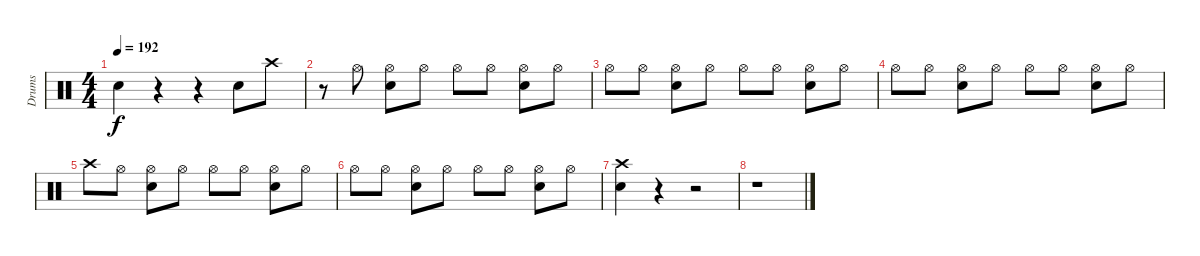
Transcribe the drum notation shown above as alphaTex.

\track ("Drums" "Drums") {instrument percussion}
\staff {score}
\articulation defaults
\ts (4 4)
\tempo 192
\clef neutral
\ks c "Snare (hit) 2".4{dy f}
r.4 r.4 "Snare (hit) 2".8 "Crash high (hit)".8 |
r.8 "Hi-Hat (open)".8 ("Hi-Hat (open)" "Snare (hit) 2").8 "Hi-Hat (open)".8 "Hi-Hat (open)".8 "Hi-Hat (open)".8 ("Hi-Hat (open)" "Snare (hit) 2").8 "Hi-Hat (open)".8 |
"Hi-Hat (open)".8 "Hi-Hat (open)".8 ("Hi-Hat (open)" "Snare (hit) 2").8 "Hi-Hat (open)".8 "Hi-Hat (open)".8 "Hi-Hat (open)".8 ("Hi-Hat (open)" "Snare (hit) 2").8 "Hi-Hat (open)".8 |
"Hi-Hat (open)".8 "Hi-Hat (open)".8 ("Hi-Hat (open)" "Snare (hit) 2").8 "Hi-Hat (open)".8 "Hi-Hat (open)".8 "Hi-Hat (open)".8 ("Hi-Hat (open)" "Snare (hit) 2").8 "Hi-Hat (open)".8 |
"Crash high (hit)".8 "Hi-Hat (open)".8 ("Hi-Hat (open)" "Snare (hit) 2").8 "Hi-Hat (open)".8 "Hi-Hat (open)".8 "Hi-Hat (open)".8 ("Hi-Hat (open)" "Snare (hit) 2").8 "Hi-Hat (open)".8 |
"Hi-Hat (open)".8 "Hi-Hat (open)".8 ("Hi-Hat (open)" "Snare (hit) 2").8 "Hi-Hat (open)".8 "Hi-Hat (open)".8 "Hi-Hat (open)".8 ("Hi-Hat (open)" "Snare (hit) 2").8 "Hi-Hat (open)".8 |
("Crash high (hit)" "Snare (hit) 2").4 r.4 r.2 |
r.1
